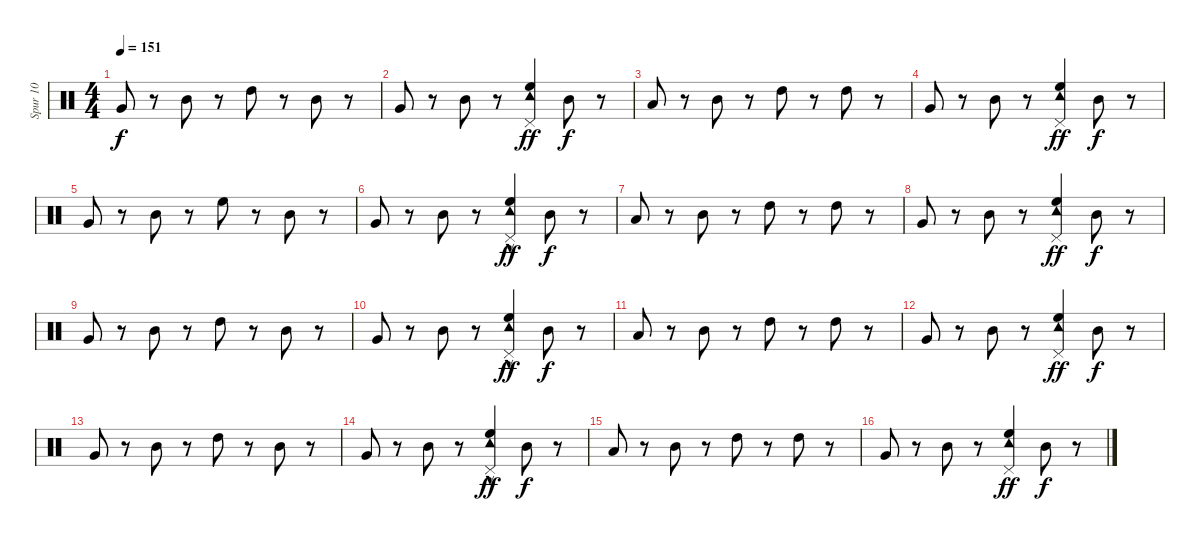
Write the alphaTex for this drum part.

\track ("Spur 10" "Spur 10") {instrument percussion}
\staff {score}
\articulation defaults
\ts (4 4)
\tempo 151
\clef neutral
\ks c "Very Low Tom (hit)".8{dy f}
r.8 "Mid Tom (hit)".8 r.8 "High Tom (hit)".8 r.8 "Mid Tom (hit)".8 r.8 |
"Very Low Tom (hit)".8 r.8 "Mid Tom (hit)".8 r.8 ("Pedal Hi-Hat (hit)" "Tambourine (hit)" "High Floor Tom (hit)").4{dy ff} "Mid Tom (hit)".8{dy f} r.8 |
"Low Tom (hit)".8 r.8 "Mid Tom (hit)".8 r.8 "High Tom (hit)".8 r.8 "High Tom (hit)".8 r.8 |
"Very Low Tom (hit)".8 r.8 "Mid Tom (hit)".8 r.8 ("Tambourine (hit)" "Pedal Hi-Hat (hit)" "High Floor Tom (hit)").4{dy ff} "Mid Tom (hit)".8{dy f} r.8 |
"Very Low Tom (hit)".8 r.8 "Mid Tom (hit)".8 r.8 "High Floor Tom (hit)".8 r.8 "Mid Tom (hit)".8 r.8 |
"Very Low Tom (hit)".8 r.8 "Mid Tom (hit)".8 r.8 ("Pedal Hi-Hat (hit)" "Tambourine (hit)"{hac} "High Floor Tom (hit)").4{dy ff} "Mid Tom (hit)".8{dy f} r.8 |
"Low Tom (hit)".8 r.8 "Mid Tom (hit)".8 r.8 "High Tom (hit)".8 r.8 "High Tom (hit)".8 r.8 |
"Very Low Tom (hit)".8 r.8 "Mid Tom (hit)".8 r.8 ("Pedal Hi-Hat (hit)" "Tambourine (hit)" "High Floor Tom (hit)").4{dy ff} "Mid Tom (hit)".8{dy f} r.8 |
"Very Low Tom (hit)".8 r.8 "Mid Tom (hit)".8 r.8 "High Tom (hit)".8 r.8 "Mid Tom (hit)".8 r.8 |
"Very Low Tom (hit)".8 r.8 "Mid Tom (hit)".8 r.8 ("Pedal Hi-Hat (hit)" "Tambourine (hit)"{hac} "High Floor Tom (hit)").4{dy ff} "Mid Tom (hit)".8{dy f} r.8 |
"Low Tom (hit)".8 r.8 "Mid Tom (hit)".8 r.8 "High Tom (hit)".8 r.8 "High Tom (hit)".8 r.8 |
"Very Low Tom (hit)".8 r.8 "Mid Tom (hit)".8 r.8 ("Pedal Hi-Hat (hit)" "Tambourine (hit)" "High Floor Tom (hit)").4{dy ff} "Mid Tom (hit)".8{dy f} r.8 |
"Very Low Tom (hit)".8 r.8 "Mid Tom (hit)".8 r.8 "High Tom (hit)".8 r.8 "Mid Tom (hit)".8 r.8 |
"Very Low Tom (hit)".8 r.8 "Mid Tom (hit)".8 r.8 ("Pedal Hi-Hat (hit)" "Tambourine (hit)"{hac} "High Floor Tom (hit)").4{dy ff} "Mid Tom (hit)".8{dy f} r.8 |
"Low Tom (hit)".8 r.8 "Mid Tom (hit)".8 r.8 "High Tom (hit)".8 r.8 "High Tom (hit)".8 r.8 |
"Very Low Tom (hit)".8 r.8 "Mid Tom (hit)".8 r.8 ("Pedal Hi-Hat (hit)" "Tambourine (hit)" "High Floor Tom (hit)").4{dy ff} "Mid Tom (hit)".8{dy f} r.8
